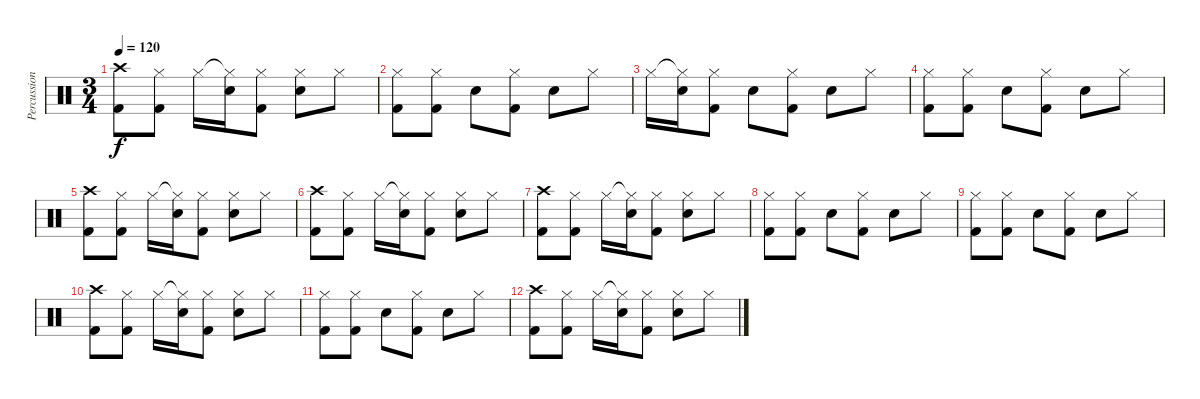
\track ("Percussion" "Percussion") {instrument percussion}
\staff {score}
\articulation defaults
\ts (3 4)
\tempo 120
\clef neutral
\ks c
("Crash high (hit)" "Kick (hit) 2").8{dy f} ("Hi-Hat (closed)" "Kick (hit) 2").8 "Hi-Hat (closed)".16 ("Hi-Hat (closed)"{t} "Snare (hit) 2").16 ("Hi-Hat (closed)" "Kick (hit) 2").8 ("Hi-Hat (closed)" "Snare (hit) 2").8 "Hi-Hat (closed)".8 |
("Hi-Hat (closed)" "Kick (hit) 2").8 ("Hi-Hat (closed)" "Kick (hit) 2").8 "Snare (hit) 2".8 ("Hi-Hat (closed)" "Kick (hit) 2").8 "Snare (hit) 2".8 "Hi-Hat (closed)".8 |
"Hi-Hat (closed)".16 ("Hi-Hat (closed)"{t} "Snare (hit) 2").16 ("Hi-Hat (closed)" "Kick (hit) 2").8 "Snare (hit) 2".8 ("Hi-Hat (closed)" "Kick (hit) 2").8 "Snare (hit) 2".8 "Hi-Hat (closed)".8 |
("Hi-Hat (closed)" "Kick (hit) 2").8 ("Hi-Hat (closed)" "Kick (hit) 2").8 "Snare (hit) 2".8 ("Hi-Hat (closed)" "Kick (hit) 2").8 "Snare (hit) 2".8 "Hi-Hat (closed)".8 |
("Crash high (hit)" "Kick (hit) 2").8 ("Hi-Hat (closed)" "Kick (hit) 2").8 "Hi-Hat (closed)".16 ("Hi-Hat (closed)"{t} "Snare (hit) 2").16 ("Hi-Hat (closed)" "Kick (hit) 2").8 ("Hi-Hat (closed)" "Snare (hit) 2").8 "Hi-Hat (closed)".8 |
("Crash high (hit)" "Kick (hit) 2").8 ("Hi-Hat (closed)" "Kick (hit) 2").8 "Hi-Hat (closed)".16 ("Hi-Hat (closed)"{t} "Snare (hit) 2").16 ("Hi-Hat (closed)" "Kick (hit) 2").8 ("Hi-Hat (closed)" "Snare (hit) 2").8 "Hi-Hat (closed)".8 |
("Crash high (hit)" "Kick (hit) 2").8 ("Hi-Hat (closed)" "Kick (hit) 2").8 "Hi-Hat (closed)".16 ("Hi-Hat (closed)"{t} "Snare (hit) 2").16 ("Hi-Hat (closed)" "Kick (hit) 2").8 ("Hi-Hat (closed)" "Snare (hit) 2").8 "Hi-Hat (closed)".8 |
("Hi-Hat (closed)" "Kick (hit) 2").8 ("Hi-Hat (closed)" "Kick (hit) 2").8 "Snare (hit) 2".8 ("Hi-Hat (closed)" "Kick (hit) 2").8 "Snare (hit) 2".8 "Hi-Hat (closed)".8 |
("Hi-Hat (closed)" "Kick (hit) 2").8 ("Hi-Hat (closed)" "Kick (hit) 2").8 "Snare (hit) 2".8 ("Hi-Hat (closed)" "Kick (hit) 2").8 "Snare (hit) 2".8 "Hi-Hat (closed)".8 |
("Crash high (hit)" "Kick (hit) 2").8 ("Hi-Hat (closed)" "Kick (hit) 2").8 "Hi-Hat (closed)".16 ("Hi-Hat (closed)"{t} "Snare (hit) 2").16 ("Hi-Hat (closed)" "Kick (hit) 2").8 ("Hi-Hat (closed)" "Snare (hit) 2").8 "Hi-Hat (closed)".8 |
("Hi-Hat (closed)" "Kick (hit) 2").8 ("Hi-Hat (closed)" "Kick (hit) 2").8 "Snare (hit) 2".8 ("Hi-Hat (closed)" "Kick (hit) 2").8 "Snare (hit) 2".8 "Hi-Hat (closed)".8 |
("Crash high (hit)" "Kick (hit) 2").8 ("Hi-Hat (closed)" "Kick (hit) 2").8 "Hi-Hat (closed)".16 ("Hi-Hat (closed)"{t} "Snare (hit) 2").16 ("Hi-Hat (closed)" "Kick (hit) 2").8 ("Hi-Hat (closed)" "Snare (hit) 2").8 "Hi-Hat (closed)".8
